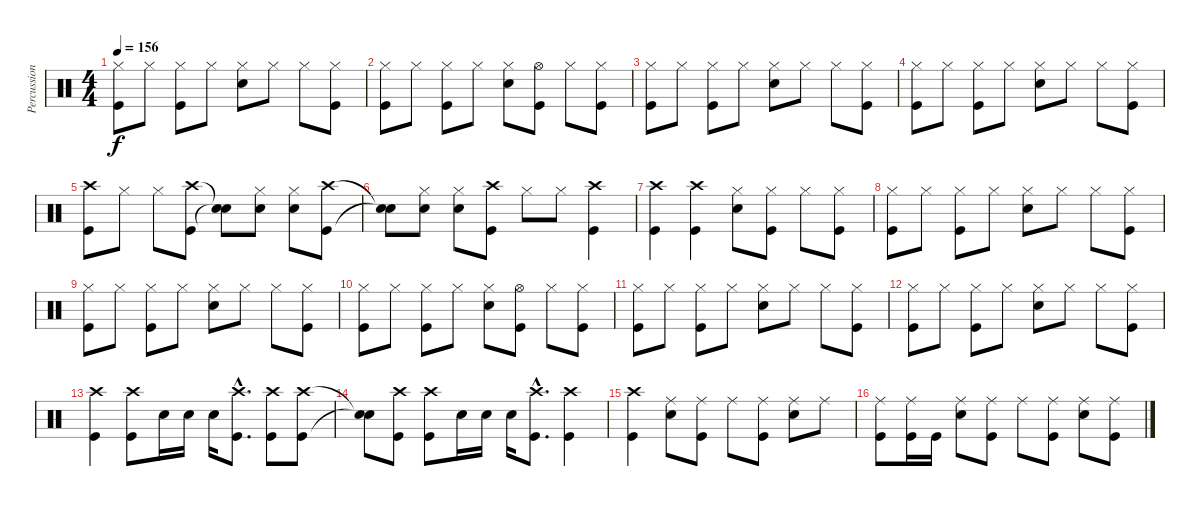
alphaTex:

\track ("Percussion" "Percussion") {instrument percussion}
\staff {score}
\articulation defaults
\ts (4 4)
\tempo 156
\clef neutral
\ks c
("Hi-Hat (closed)" "Kick (hit)").8{dy f} "Hi-Hat (closed)".8 ("Hi-Hat (closed)" "Kick (hit)").8 "Hi-Hat (closed)".8 ("Hi-Hat (closed)" "Electric Snare (hit)").8 "Hi-Hat (closed)".8 "Hi-Hat (closed)".8 ("Hi-Hat (closed)" "Kick (hit)").8 |
("Hi-Hat (closed)" "Kick (hit)").8 "Hi-Hat (closed)".8 ("Hi-Hat (closed)" "Kick (hit)").8 "Hi-Hat (closed)".8 ("Hi-Hat (closed)" "Electric Snare (hit)").8 ("Hi-Hat (open)" "Kick (hit)").8 "Hi-Hat (closed)".8 ("Hi-Hat (closed)" "Kick (hit)").8 |
("Hi-Hat (closed)" "Kick (hit)").8 "Hi-Hat (closed)".8 ("Hi-Hat (closed)" "Kick (hit)").8 "Hi-Hat (closed)".8 ("Hi-Hat (closed)" "Electric Snare (hit)").8 "Hi-Hat (closed)".8 "Hi-Hat (closed)".8 ("Hi-Hat (closed)" "Kick (hit)").8 |
("Hi-Hat (closed)" "Kick (hit)").8 "Hi-Hat (closed)".8 ("Hi-Hat (closed)" "Kick (hit)").8 "Hi-Hat (closed)".8 ("Hi-Hat (closed)" "Electric Snare (hit)").8 "Hi-Hat (closed)".8 "Hi-Hat (closed)".8 ("Hi-Hat (closed)" "Kick (hit)").8 |
("Crash high (hit)" "Kick (hit)").8 "Hi-Hat (closed)".8 "Hi-Hat (closed)".8 ("Crash high (hit)" "Kick (hit)").8 ("Snare (hit)"{t} "Snare (hit)"{t}).8 ("Hi-Hat (closed)" "Electric Snare (hit)").8 ("Hi-Hat (closed)" "Electric Snare (hit)").8 ("Crash high (hit)" "Kick (hit)").8 |
("Snare (hit)"{t} "Snare (hit)"{t}).8 ("Hi-Hat (closed)" "Electric Snare (hit)").8 ("Hi-Hat (closed)" "Electric Snare (hit)").8 ("Crash high (hit)" "Kick (hit)").8 "Hi-Hat (closed)".8 "Hi-Hat (closed)".8 ("Crash high (hit)" "Kick (hit)").4 |
("Crash high (hit)" "Kick (hit)").4 ("Crash high (hit)" "Kick (hit)").4 ("Hi-Hat (closed)" "Electric Snare (hit)").8 ("Hi-Hat (closed)" "Kick (hit)").8 "Hi-Hat (closed)".8 ("Hi-Hat (closed)" "Kick (hit)").8 |
("Hi-Hat (closed)" "Kick (hit)").8 "Hi-Hat (closed)".8 ("Hi-Hat (closed)" "Kick (hit)").8 "Hi-Hat (closed)".8 ("Hi-Hat (closed)" "Electric Snare (hit)").8 "Hi-Hat (closed)".8 "Hi-Hat (closed)".8 ("Hi-Hat (closed)" "Kick (hit)").8 |
("Hi-Hat (closed)" "Kick (hit)").8 "Hi-Hat (closed)".8 ("Hi-Hat (closed)" "Kick (hit)").8 "Hi-Hat (closed)".8 ("Hi-Hat (closed)" "Electric Snare (hit)").8 "Hi-Hat (closed)".8 "Hi-Hat (closed)".8 ("Hi-Hat (closed)" "Kick (hit)").8 |
("Hi-Hat (closed)" "Kick (hit)").8 "Hi-Hat (closed)".8 ("Hi-Hat (closed)" "Kick (hit)").8 "Hi-Hat (closed)".8 ("Hi-Hat (closed)" "Electric Snare (hit)").8 ("Hi-Hat (open)" "Kick (hit)").8 "Hi-Hat (closed)".8 ("Hi-Hat (closed)" "Kick (hit)").8 |
("Hi-Hat (closed)" "Kick (hit)").8 "Hi-Hat (closed)".8 ("Hi-Hat (closed)" "Kick (hit)").8 "Hi-Hat (closed)".8 ("Hi-Hat (closed)" "Electric Snare (hit)").8 "Hi-Hat (closed)".8 "Hi-Hat (closed)".8 ("Hi-Hat (closed)" "Kick (hit)").8 |
("Hi-Hat (closed)" "Kick (hit)").8 "Hi-Hat (closed)".8 ("Hi-Hat (closed)" "Kick (hit)").8 "Hi-Hat (closed)".8 ("Hi-Hat (closed)" "Electric Snare (hit)").8 "Hi-Hat (closed)".8 "Hi-Hat (closed)".8 ("Hi-Hat (closed)" "Kick (hit)").8 |
("Crash high (hit)" "Kick (hit)").4 ("Crash high (hit)" "Kick (hit)").8 "Electric Snare (hit)".16 "Electric Snare (hit)".16 "Electric Snare (hit)".16 ("Crash high (hit)"{hac} "Kick (hit)"{hac}).8{d} ("Crash high (hit)" "Kick (hit)").8 ("Crash high (hit)" "Kick (hit)").8 |
("Snare (hit)"{t} "Snare (hit)"{t}).8 ("Crash high (hit)" "Kick (hit)").8 ("Crash high (hit)" "Kick (hit)").8 "Electric Snare (hit)".16 "Electric Snare (hit)".16 "Electric Snare (hit)".16 ("Crash high (hit)"{hac} "Kick (hit)"{hac}).8{d} ("Crash high (hit)" "Kick (hit)").4 |
("Crash high (hit)" "Kick (hit)").4 ("Ride (middle)" "Electric Snare (hit)").8 ("Ride (middle)" "Kick (hit)").8 "Ride (middle)".8 ("Ride (middle)" "Kick (hit)").8 ("Ride (middle)" "Electric Snare (hit)").8 "Ride (middle)".8 |
("Ride (middle)" "Kick (hit)").8 ("Ride (middle)" "Kick (hit)").16 "Kick (hit)".16 ("Ride (middle)" "Electric Snare (hit)").8 ("Ride (middle)" "Kick (hit)").8 "Ride (middle)".8 ("Ride (middle)" "Kick (hit)").8 ("Ride (middle)" "Electric Snare (hit)").8 ("Ride (middle)" "Kick (hit)").8
